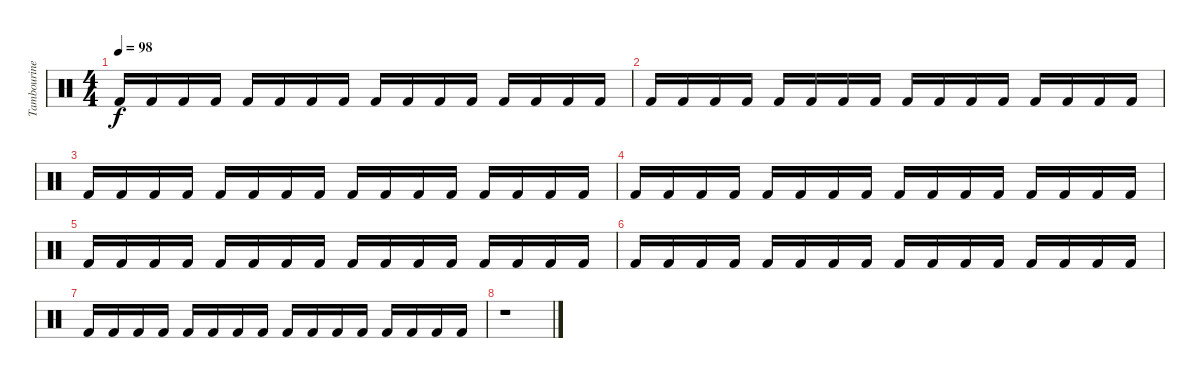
\track ("Tambourine" "Tambourine") {instrument percussion}
\staff {score}
\articulation defaults
\ts (4 4)
\tempo 98
\clef neutral
\ks c "Kick (hit) 2".16{dy f} "Kick (hit) 2".16 "Kick (hit) 2".16 "Kick (hit) 2".16 "Kick (hit) 2".16 "Kick (hit) 2".16 "Kick (hit) 2".16 "Kick (hit) 2".16 "Kick (hit) 2".16 "Kick (hit) 2".16 "Kick (hit) 2".16 "Kick (hit) 2".16 "Kick (hit) 2".16 "Kick (hit) 2".16 "Kick (hit) 2".16 "Kick (hit) 2".16
|
"Kick (hit) 2".16 "Kick (hit) 2".16 "Kick (hit) 2".16 "Kick (hit) 2".16 "Kick (hit) 2".16 "Kick (hit) 2".16 "Kick (hit) 2".16 "Kick (hit) 2".16 "Kick (hit) 2".16 "Kick (hit) 2".16 "Kick (hit) 2".16 "Kick (hit) 2".16 "Kick (hit) 2".16 "Kick (hit) 2".16 "Kick (hit) 2".16 "Kick (hit) 2".16 |
"Kick (hit) 2".16 "Kick (hit) 2".16 "Kick (hit) 2".16 "Kick (hit) 2".16 "Kick (hit) 2".16 "Kick (hit) 2".16 "Kick (hit) 2".16 "Kick (hit) 2".16 "Kick (hit) 2".16 "Kick (hit) 2".16 "Kick (hit) 2".16 "Kick (hit) 2".16 "Kick (hit) 2".16 "Kick (hit) 2".16 "Kick (hit) 2".16 "Kick (hit) 2".16 |
"Kick (hit) 2".16 "Kick (hit) 2".16 "Kick (hit) 2".16 "Kick (hit) 2".16 "Kick (hit) 2".16 "Kick (hit) 2".16 "Kick (hit) 2".16 "Kick (hit) 2".16 "Kick (hit) 2".16 "Kick (hit) 2".16 "Kick (hit) 2".16 "Kick (hit) 2".16 "Kick (hit) 2".16 "Kick (hit) 2".16 "Kick (hit) 2".16 "Kick (hit) 2".16 |
"Kick (hit) 2".16 "Kick (hit) 2".16 "Kick (hit) 2".16 "Kick (hit) 2".16 "Kick (hit) 2".16 "Kick (hit) 2".16 "Kick (hit) 2".16 "Kick (hit) 2".16 "Kick (hit) 2".16 "Kick (hit) 2".16 "Kick (hit) 2".16 "Kick (hit) 2".16 "Kick (hit) 2".16 "Kick (hit) 2".16 "Kick (hit) 2".16 "Kick (hit) 2".16 |
"Kick (hit) 2".16 "Kick (hit) 2".16 "Kick (hit) 2".16 "Kick (hit) 2".16 "Kick (hit) 2".16 "Kick (hit) 2".16 "Kick (hit) 2".16 "Kick (hit) 2".16 "Kick (hit) 2".16 "Kick (hit) 2".16 "Kick (hit) 2".16 "Kick (hit) 2".16 "Kick (hit) 2".16 "Kick (hit) 2".16 "Kick (hit) 2".16 "Kick (hit) 2".16 |
"Kick (hit) 2".16 "Kick (hit) 2".16 "Kick (hit) 2".16 "Kick (hit) 2".16 "Kick (hit) 2".16 "Kick (hit) 2".16 "Kick (hit) 2".16 "Kick (hit) 2".16 "Kick (hit) 2".16 "Kick (hit) 2".16 "Kick (hit) 2".16 "Kick (hit) 2".16 "Kick (hit) 2".16 "Kick (hit) 2".16 "Kick (hit) 2".16 "Kick (hit) 2".16 |
r.1
